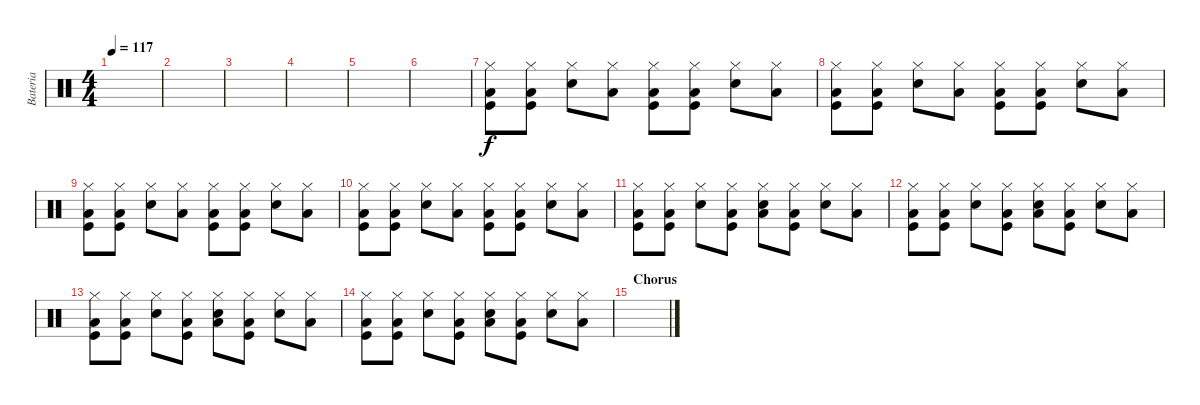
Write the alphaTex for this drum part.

\track ("Bateria" "Bateria") {instrument percussion}
\staff {score}
\articulation defaults
\ts (4 4)
\tempo 117
\clef neutral
\ks c
|
|
|
|
|
|
("Hi-Hat (closed)" "Kick (hit)" "Low Tom (hit)").8 ("Hi-Hat (closed)" "Kick (hit)" "Low Tom (hit)").8 ("Hi-Hat (closed)" "Snare (hit) 2").8 ("Hi-Hat (closed)" "Low Tom (hit)").8 ("Hi-Hat (closed)" "Kick (hit)" "Low Tom (hit)").8 ("Hi-Hat (closed)" "Kick (hit)" "Low Tom (hit)").8 ("Hi-Hat (closed)" "Snare (hit) 2").8 ("Hi-Hat (closed)" "Low Tom (hit)").8 |
("Hi-Hat (closed)" "Kick (hit)" "Low Tom (hit)").8 ("Hi-Hat (closed)" "Kick (hit)" "Low Tom (hit)").8 ("Hi-Hat (closed)" "Snare (hit) 2").8 ("Hi-Hat (closed)" "Low Tom (hit)").8 ("Hi-Hat (closed)" "Kick (hit)" "Low Tom (hit)").8 ("Hi-Hat (closed)" "Kick (hit)" "Low Tom (hit)").8 ("Hi-Hat (closed)" "Snare (hit) 2").8 ("Hi-Hat (closed)" "Low Tom (hit)").8 |
("Hi-Hat (closed)" "Kick (hit)" "Low Tom (hit)").8 ("Hi-Hat (closed)" "Kick (hit)" "Low Tom (hit)").8 ("Hi-Hat (closed)" "Snare (hit) 2").8 ("Hi-Hat (closed)" "Low Tom (hit)").8 ("Hi-Hat (closed)" "Kick (hit)" "Low Tom (hit)").8 ("Hi-Hat (closed)" "Kick (hit)" "Low Tom (hit)").8 ("Hi-Hat (closed)" "Snare (hit) 2").8 ("Hi-Hat (closed)" "Low Tom (hit)").8 |
("Hi-Hat (closed)" "Kick (hit)" "Low Tom (hit)").8 ("Hi-Hat (closed)" "Kick (hit)" "Low Tom (hit)").8 ("Hi-Hat (closed)" "Snare (hit) 2").8 ("Hi-Hat (closed)" "Low Tom (hit)").8 ("Hi-Hat (closed)" "Kick (hit)" "Low Tom (hit)").8 ("Hi-Hat (closed)" "Kick (hit)" "Low Tom (hit)").8 ("Hi-Hat (closed)" "Snare (hit) 2").8 ("Hi-Hat (closed)" "Low Tom (hit)").8 |
("Hi-Hat (closed)" "Kick (hit)" "Low Tom (hit)").8 ("Hi-Hat (closed)" "Kick (hit)" "Low Tom (hit)").8 ("Hi-Hat (closed)" "Snare (hit) 2").8 ("Hi-Hat (closed)" "Kick (hit)" "Low Tom (hit)").8 ("Hi-Hat (closed)" "Snare (hit) 2" "Low Tom (hit)").8 ("Hi-Hat (closed)" "Kick (hit)" "Low Tom (hit)").8 ("Hi-Hat (closed)" "Snare (hit) 2").8 ("Hi-Hat (closed)" "Low Tom (hit)").8 |
("Hi-Hat (closed)" "Kick (hit)" "Low Tom (hit)").8 ("Hi-Hat (closed)" "Kick (hit)" "Low Tom (hit)").8 ("Hi-Hat (closed)" "Snare (hit) 2").8 ("Hi-Hat (closed)" "Kick (hit)" "Low Tom (hit)").8 ("Hi-Hat (closed)" "Snare (hit) 2" "Low Tom (hit)").8 ("Hi-Hat (closed)" "Kick (hit)" "Low Tom (hit)").8 ("Hi-Hat (closed)" "Snare (hit) 2").8 ("Hi-Hat (closed)" "Low Tom (hit)").8 |
("Hi-Hat (closed)" "Kick (hit)" "Low Tom (hit)").8 ("Hi-Hat (closed)" "Kick (hit)" "Low Tom (hit)").8 ("Hi-Hat (closed)" "Snare (hit) 2").8 ("Hi-Hat (closed)" "Kick (hit)" "Low Tom (hit)").8 ("Hi-Hat (closed)" "Snare (hit) 2" "Low Tom (hit)").8 ("Hi-Hat (closed)" "Kick (hit)" "Low Tom (hit)").8 ("Hi-Hat (closed)" "Snare (hit) 2").8 ("Hi-Hat (closed)" "Low Tom (hit)").8 |
("Hi-Hat (closed)" "Kick (hit)" "Low Tom (hit)").8 ("Hi-Hat (closed)" "Kick (hit)" "Low Tom (hit)").8 ("Hi-Hat (closed)" "Snare (hit) 2").8 ("Hi-Hat (closed)" "Kick (hit)" "Low Tom (hit)").8 ("Hi-Hat (closed)" "Snare (hit) 2" "Low Tom (hit)").8 ("Hi-Hat (closed)" "Kick (hit)" "Low Tom (hit)").8 ("Hi-Hat (closed)" "Snare (hit) 2").8 ("Hi-Hat (closed)" "Low Tom (hit)").8 |
\section ("" "Chorus")
